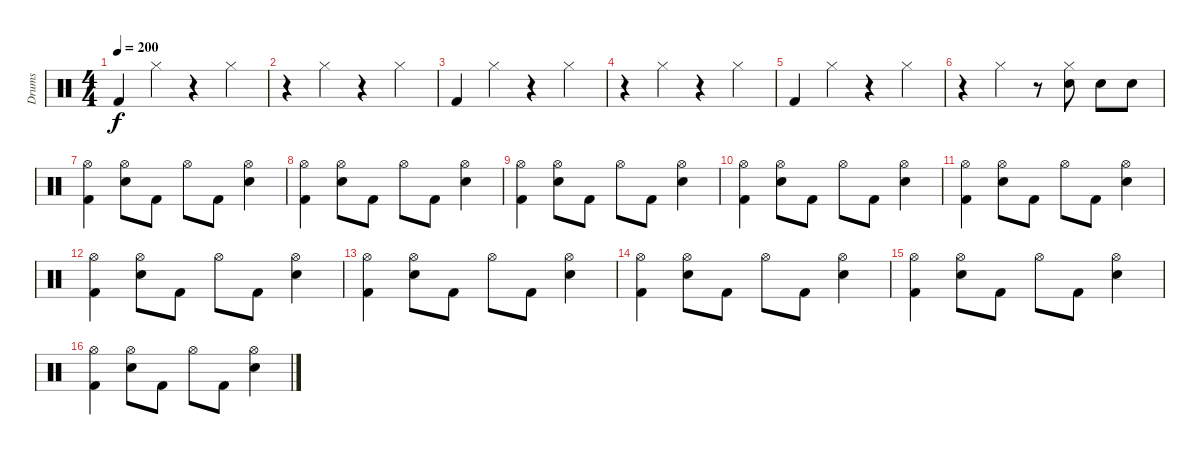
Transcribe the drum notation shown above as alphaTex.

\track ("Drums" "Drums") {instrument percussion}
\staff {score}
\articulation defaults
\ts (4 4)
\tempo 200
\clef neutral
\ks c "Kick (hit) 2".4{dy f} "Hi-Hat (closed)".4
r.4 "Hi-Hat (closed)".4 |
r.4 "Hi-Hat (closed)".4 r.4 "Hi-Hat (closed)".4 |
"Kick (hit) 2".4 "Hi-Hat (closed)".4 r.4 "Hi-Hat (closed)".4 |
r.4 "Hi-Hat (closed)".4 r.4 "Hi-Hat (closed)".4 |
"Kick (hit) 2".4 "Hi-Hat (closed)".4 r.4 "Hi-Hat (closed)".4 |
r.4 "Hi-Hat (closed)".4 r.8 ("Snare (hit) 2" "Hi-Hat (closed)").8 "Snare (hit) 2".8 "Snare (hit) 2".8 |
("Hi-Hat (open)" "Kick (hit) 2").4 ("Snare (hit) 2" "Hi-Hat (open)").8 "Kick (hit) 2".8 "Hi-Hat (open)".8 "Kick (hit) 2".8 ("Snare (hit) 2" "Hi-Hat (open)").4 |
("Hi-Hat (open)" "Kick (hit) 2").4 ("Snare (hit) 2" "Hi-Hat (open)").8 "Kick (hit) 2".8 "Hi-Hat (open)".8 "Kick (hit) 2".8 ("Snare (hit) 2" "Hi-Hat (open)").4 |
("Hi-Hat (open)" "Kick (hit) 2").4 ("Snare (hit) 2" "Hi-Hat (open)").8 "Kick (hit) 2".8 "Hi-Hat (open)".8 "Kick (hit) 2".8 ("Snare (hit) 2" "Hi-Hat (open)").4 |
("Hi-Hat (open)" "Kick (hit) 2").4 ("Snare (hit) 2" "Hi-Hat (open)").8 "Kick (hit) 2".8 "Hi-Hat (open)".8 "Kick (hit) 2".8 ("Snare (hit) 2" "Hi-Hat (open)").4 |
("Hi-Hat (open)" "Kick (hit) 2").4 ("Snare (hit) 2" "Hi-Hat (open)").8 "Kick (hit) 2".8 "Hi-Hat (open)".8 "Kick (hit) 2".8 ("Snare (hit) 2" "Hi-Hat (open)").4 |
("Hi-Hat (open)" "Kick (hit) 2").4 ("Snare (hit) 2" "Hi-Hat (open)").8 "Kick (hit) 2".8 "Hi-Hat (open)".8 "Kick (hit) 2".8 ("Snare (hit) 2" "Hi-Hat (open)").4 |
("Hi-Hat (open)" "Kick (hit) 2").4 ("Snare (hit) 2" "Hi-Hat (open)").8 "Kick (hit) 2".8 "Hi-Hat (open)".8 "Kick (hit) 2".8 ("Snare (hit) 2" "Hi-Hat (open)").4 |
("Hi-Hat (open)" "Kick (hit) 2").4 ("Snare (hit) 2" "Hi-Hat (open)").8 "Kick (hit) 2".8 "Hi-Hat (open)".8 "Kick (hit) 2".8 ("Snare (hit) 2" "Hi-Hat (open)").4 |
("Hi-Hat (open)" "Kick (hit) 2").4 ("Snare (hit) 2" "Hi-Hat (open)").8 "Kick (hit) 2".8 "Hi-Hat (open)".8 "Kick (hit) 2".8 ("Snare (hit) 2" "Hi-Hat (open)").4 |
("Hi-Hat (open)" "Kick (hit) 2").4 ("Snare (hit) 2" "Hi-Hat (open)").8 "Kick (hit) 2".8 "Hi-Hat (open)".8 "Kick (hit) 2".8 ("Snare (hit) 2" "Hi-Hat (open)").4
